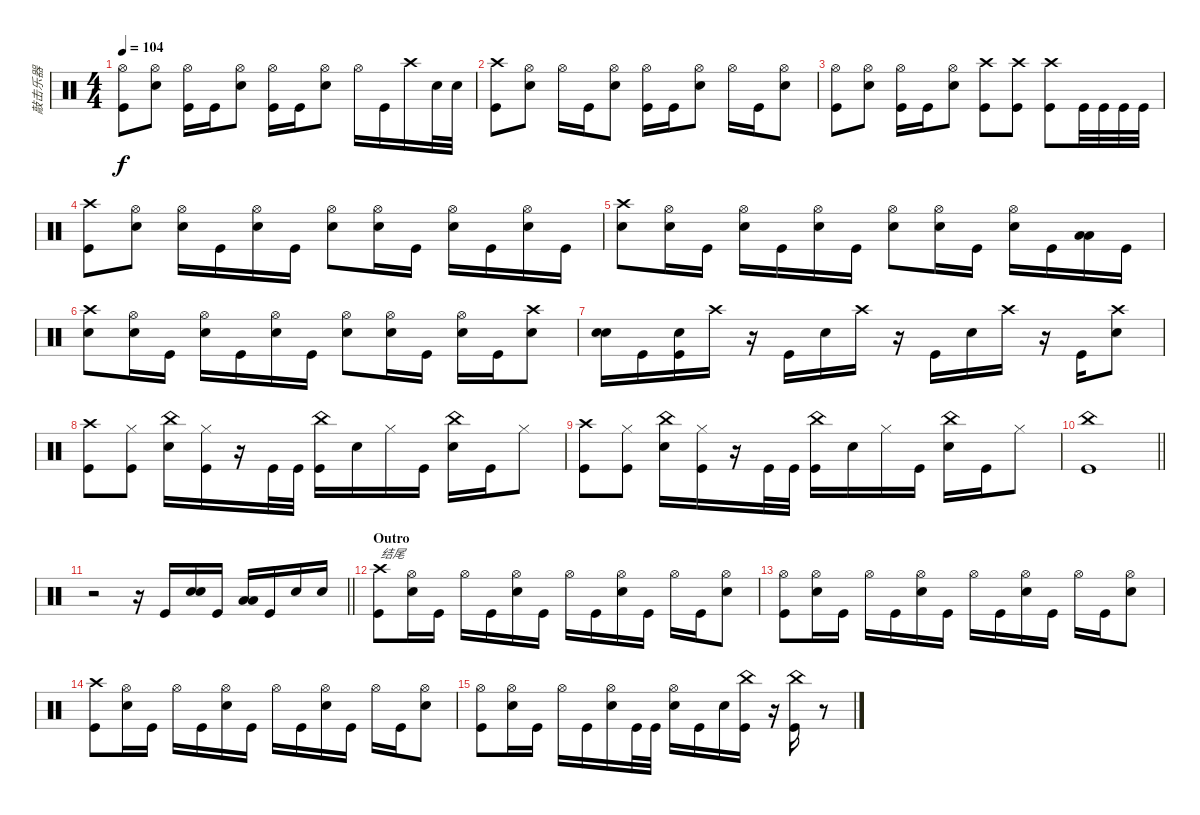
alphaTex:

\track ("敲击乐器" "敲击乐器") {instrument percussion}
\staff {score}
\articulation defaults
\ts (4 4)
\tempo 104
\clef neutral
\ks c
("Kick (hit)" "Hi-Hat (open)").8{dy f} ("Snare (hit) 2" "Hi-Hat (open)").8 ("Hi-Hat (open)" "Kick (hit)").16 "Kick (hit)".16 ("Snare (hit) 2" "Hi-Hat (open)").8 ("Kick (hit)" "Hi-Hat (open)").16 "Kick (hit)".16 ("Snare (hit) 2" "Hi-Hat (open)").8 "Hi-Hat (open)".16 "Kick (hit)".16 "Crash high (hit)".16 "Snare (hit) 2".32 "Snare (hit) 2".32 |
("Crash high (hit)" "Kick (hit)").8 ("Snare (hit) 2" "Hi-Hat (open)").8 "Hi-Hat (open)".16 "Kick (hit)".16 ("Snare (hit) 2" "Hi-Hat (open)").8 ("Kick (hit)" "Hi-Hat (open)").16 "Kick (hit)".16 ("Snare (hit) 2" "Hi-Hat (open)").8 "Hi-Hat (open)".16 "Kick (hit)".16 ("Snare (hit) 2" "Hi-Hat (open)").8 |
("Kick (hit)" "Hi-Hat (open)").8 ("Snare (hit) 2" "Hi-Hat (open)").8 ("Hi-Hat (open)" "Kick (hit)").16 "Kick (hit)".16 ("Snare (hit) 2" "Hi-Hat (open)").8 ("Kick (hit)" "Crash high (hit)").8 ("Kick (hit)" "Crash high (hit)").8 ("Kick (hit)" "Crash high (hit)").8 "Kick (hit)".32 "Kick (hit)".32 "Kick (hit)".32 "Kick (hit)".32 |
("Crash high (hit)" "Kick (hit)").8 ("Snare (hit) 2" "Hi-Hat (open)").8 ("Snare (hit) 2" "Hi-Hat (open)").16 "Kick (hit)".16 ("Snare (hit) 2" "Hi-Hat (open)").16 "Kick (hit)".16 ("Snare (hit) 2" "Hi-Hat (open)").8 ("Snare (hit) 2" "Hi-Hat (open)").16 "Kick (hit)".16 ("Snare (hit) 2" "Hi-Hat (open)").16 "Kick (hit)".16 ("Snare (hit) 2" "Hi-Hat (open)").16 "Kick (hit)".16 |
("Snare (hit) 2" "Crash high (hit)").8 ("Snare (hit) 2" "Hi-Hat (open)").16 "Kick (hit)".16 ("Snare (hit) 2" "Hi-Hat (open)").16 "Kick (hit)".16 ("Snare (hit) 2" "Hi-Hat (open)").16 "Kick (hit)".16 ("Snare (hit) 2" "Hi-Hat (open)").8 ("Snare (hit) 2" "Hi-Hat (open)").16 "Kick (hit)".16 ("Snare (hit) 2" "Hi-Hat (open)").16 "Kick (hit)".16 ("Low Tom (hit)" "Low Floor Tom (hit)").16 "Kick (hit)".16 |
("Snare (hit) 2" "Crash high (hit)").8 ("Snare (hit) 2" "Hi-Hat (open)").16 "Kick (hit)".16 ("Snare (hit) 2" "Hi-Hat (open)").16 "Kick (hit)".16 ("Snare (hit) 2" "Hi-Hat (open)").16 "Kick (hit)".16 ("Snare (hit) 2" "Hi-Hat (open)").8 ("Snare (hit) 2" "Hi-Hat (open)").16 "Kick (hit)".16 ("Snare (hit) 2" "Hi-Hat (open)").16 "Kick (hit)".16 ("Snare (hit) 2" "Crash high (hit)").8 |
("Snare (hit) 2" "Snare (hit) 2").16 "Kick (hit)".16 ("Snare (hit) 2" "Kick (hit)").16 "Crash high (hit)".16 r.16 "Kick (hit)".16 "Snare (hit) 2".16 "Crash high (hit)".16 r.16 "Kick (hit)".16 "Snare (hit) 2".16 "Crash high (hit)".16 r.16 "Kick (hit)".16 ("Snare (hit) 2" "Crash high (hit)").8 |
("Crash high (hit)" "Kick (hit)").8 ("Kick (hit)" "Hi-Hat (closed)").8 ("Snare (hit) 2" "China (hit)").16 ("Kick (hit)" "Hi-Hat (closed)").16 r.16 "Kick (hit)".32 "Kick (hit)".32 ("Kick (hit)" "China (hit)").16 "Snare (hit) 2".16 "Hi-Hat (closed)".16 "Kick (hit)".16 ("Snare (hit) 2" "China (hit)").16 "Kick (hit)".16 "Hi-Hat (closed)".8 |
("Crash high (hit)" "Kick (hit)").8 ("Kick (hit)" "Hi-Hat (closed)").8 ("Snare (hit) 2" "China (hit)").16 ("Kick (hit)" "Hi-Hat (closed)").16 r.16 "Kick (hit)".32 "Kick (hit)".32 ("Kick (hit)" "China (hit)").16 "Snare (hit) 2".16 "Hi-Hat (closed)".16 "Kick (hit)".16 ("Snare (hit) 2" "China (hit)").16 "Kick (hit)".16 "Hi-Hat (closed)".8 |
\barLineRight lightlight
("China (hit)" "Kick (hit)").1 |
\barLineRight lightlight
r.2 r.16 "Kick (hit)".16 ("Snare (hit) 2" "Snare (hit) 2").16 "Kick (hit)".16 ("Low Tom (hit)" "Low Floor Tom (hit)").16 "Kick (hit)".16 "Snare (hit) 2".16 "Snare (hit) 2".16 |
\section ("" "Outro")
("Crash high (hit)" "Kick (hit)").8{txt "结尾"} ("Snare (hit) 2" "Hi-Hat (open)").16 "Kick (hit)".16 "Hi-Hat (open)".16 "Kick (hit)".16 ("Snare (hit) 2" "Hi-Hat (open)").16 "Kick (hit)".16 "Hi-Hat (open)".16 "Kick (hit)".16 ("Snare (hit) 2" "Hi-Hat (open)").16 "Kick (hit)".16 "Hi-Hat (open)".16 "Kick (hit)".16 ("Snare (hit) 2" "Hi-Hat (open)").8 |
("Hi-Hat (open)" "Kick (hit)").8 ("Snare (hit) 2" "Hi-Hat (open)").16 "Kick (hit)".16 "Hi-Hat (open)".16 "Kick (hit)".16 ("Snare (hit) 2" "Hi-Hat (open)").16 "Kick (hit)".16 "Hi-Hat (open)".16 "Kick (hit)".16 ("Snare (hit) 2" "Hi-Hat (open)").16 "Kick (hit)".16 "Hi-Hat (open)".16 "Kick (hit)".16 ("Snare (hit) 2" "Hi-Hat (open)").8 |
("Crash high (hit)" "Kick (hit)").8 ("Snare (hit) 2" "Hi-Hat (open)").16 "Kick (hit)".16 "Hi-Hat (open)".16 "Kick (hit)".16 ("Snare (hit) 2" "Hi-Hat (open)").16 "Kick (hit)".16 "Hi-Hat (open)".16 "Kick (hit)".16 ("Snare (hit) 2" "Hi-Hat (open)").16 "Kick (hit)".16 "Hi-Hat (open)".16 "Kick (hit)".16 ("Snare (hit) 2" "Hi-Hat (open)").8 |
("Hi-Hat (open)" "Kick (hit)").8 ("Snare (hit) 2" "Hi-Hat (open)").16 "Kick (hit)".16 "Hi-Hat (open)".16 "Kick (hit)".16 ("Snare (hit) 2" "Hi-Hat (open)").16 "Kick (hit)".32 "Kick (hit)".32 ("Snare (hit) 2" "Hi-Hat (open)").16 "Kick (hit)".16 "Snare (hit) 2".16 ("Kick (hit)" "China (hit)").16 r.16 ("China (hit)" "Kick (hit)").16 r.8
